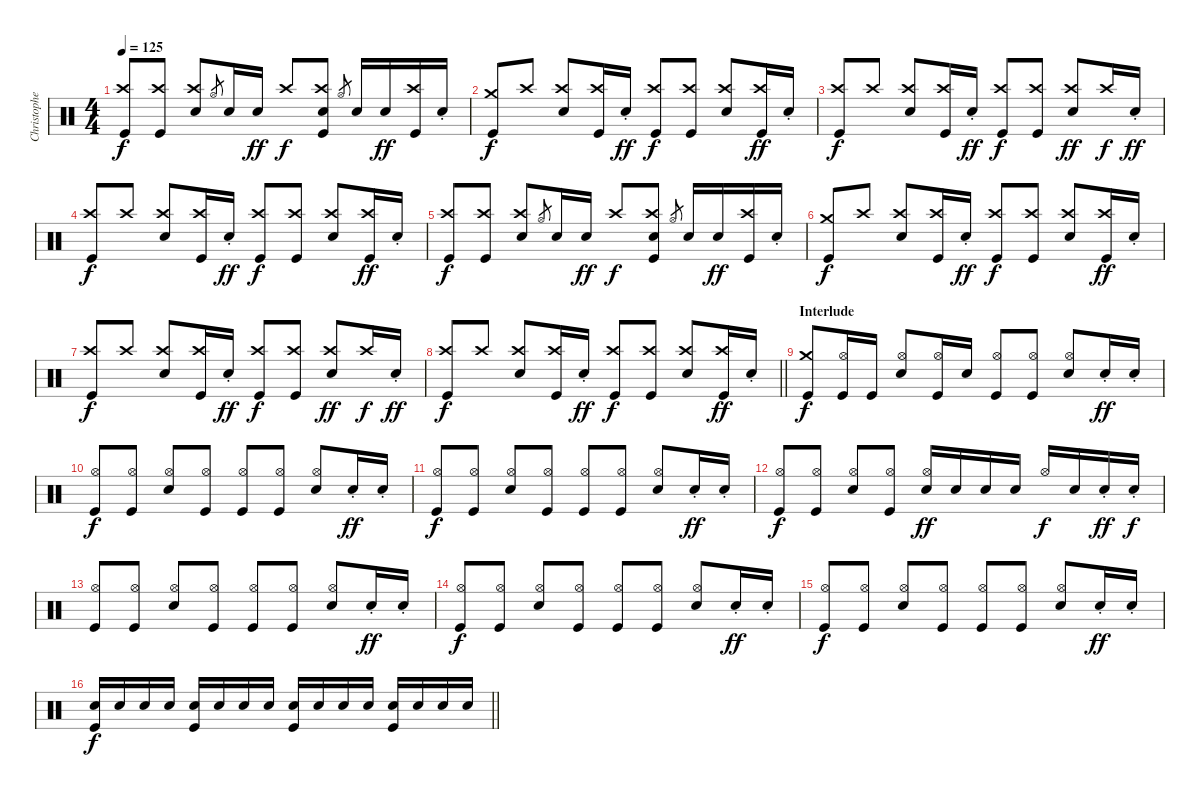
\track ("Christopher - Drums" "Christophe") {instrument percussion}
\staff {score}
\articulation defaults
\ts (4 4)
\tempo 125
\clef neutral
\ks c
("Crash high (hit)" "Kick (hit)").8{dy f beam Up} ("Crash high (hit)" "Kick (hit)").8{beam Up} ("Crash high (hit)" "Electric Snare (hit)").8{beam Up} "Hi-Hat (open)".8{gr} "Electric Snare (hit)".16{beam Up} "Electric Snare (hit)".16{dy ff beam Up} "Crash high (hit)".8{dy f beam Up} ("Crash high (hit)" "Electric Snare (hit)" "Kick (hit)").8{beam Up} "Hi-Hat (open)".8{gr} "Electric Snare (hit)".16{beam Up} "Electric Snare (hit)".16{dy ff beam Up} ("Crash high (hit)" "Kick (hit)").16{beam Up} "Electric Snare (hit)"{st}.16{beam Up} |
("Crash medium (hit)" "Kick (hit)").8{dy f beam Up} "Crash high (hit)".8{beam Up} ("Crash high (hit)" "Electric Snare (hit)").8{beam Up} ("Crash high (hit)" "Kick (hit)").16{beam Up} "Electric Snare (hit)"{st}.16{dy ff beam Up} ("Crash high (hit)" "Kick (hit)").8{dy f beam Up} ("Crash high (hit)" "Kick (hit)").8{beam Up} ("Crash high (hit)" "Electric Snare (hit)").8{beam Up} ("Crash high (hit)" "Kick (hit)").16{dy ff beam Up} "Electric Snare (hit)"{st}.16{beam Up} |
("Crash high (hit)" "Kick (hit)").8{dy f beam Up} "Crash high (hit)".8{beam Up} ("Crash high (hit)" "Electric Snare (hit)").8{beam Up} ("Crash high (hit)" "Kick (hit)").16{beam Up} "Electric Snare (hit)"{st}.16{dy ff beam Up} ("Crash high (hit)" "Kick (hit)").8{dy f beam Up} ("Crash high (hit)" "Kick (hit)").8{beam Up} ("Crash high (hit)" "Electric Snare (hit)").8{dy ff beam Up} "Crash high (hit)".16{dy f beam Up} "Electric Snare (hit)"{st}.16{dy ff beam Up} |
("Crash high (hit)" "Kick (hit)").8{dy f beam Up} "Crash high (hit)".8{beam Up} ("Crash high (hit)" "Electric Snare (hit)").8{beam Up} ("Crash high (hit)" "Kick (hit)").16{beam Up} "Electric Snare (hit)"{st}.16{dy ff beam Up} ("Crash high (hit)" "Kick (hit)").8{dy f beam Up} ("Crash high (hit)" "Kick (hit)").8{beam Up} ("Crash high (hit)" "Electric Snare (hit)").8{beam Up} ("Crash high (hit)" "Kick (hit)").16{dy ff beam Up} "Electric Snare (hit)"{st}.16{beam Up} |
("Crash high (hit)" "Kick (hit)").8{dy f beam Up} ("Crash high (hit)" "Kick (hit)").8{beam Up} ("Crash high (hit)" "Electric Snare (hit)").8{beam Up} "Hi-Hat (open)".8{gr} "Electric Snare (hit)".16{beam Up} "Electric Snare (hit)".16{dy ff beam Up} "Crash high (hit)".8{dy f beam Up} ("Crash high (hit)" "Electric Snare (hit)" "Kick (hit)").8{beam Up} "Hi-Hat (open)".8{gr} "Electric Snare (hit)".16{beam Up} "Electric Snare (hit)".16{dy ff beam Up} ("Crash high (hit)" "Kick (hit)").16{beam Up} "Electric Snare (hit)"{st}.16{beam Up} |
("Crash medium (hit)" "Kick (hit)").8{dy f beam Up} "Crash high (hit)".8{beam Up} ("Crash high (hit)" "Electric Snare (hit)").8{beam Up} ("Crash high (hit)" "Kick (hit)").16{beam Up} "Electric Snare (hit)"{st}.16{dy ff beam Up} ("Crash high (hit)" "Kick (hit)").8{dy f beam Up} ("Crash high (hit)" "Kick (hit)").8{beam Up} ("Crash high (hit)" "Electric Snare (hit)").8{beam Up} ("Crash high (hit)" "Kick (hit)").16{dy ff beam Up} "Electric Snare (hit)"{st}.16{beam Up} |
("Crash high (hit)" "Kick (hit)").8{dy f beam Up} "Crash high (hit)".8{beam Up} ("Crash high (hit)" "Electric Snare (hit)").8{beam Up} ("Crash high (hit)" "Kick (hit)").16{beam Up} "Electric Snare (hit)"{st}.16{dy ff beam Up} ("Crash high (hit)" "Kick (hit)").8{dy f beam Up} ("Crash high (hit)" "Kick (hit)").8{beam Up} ("Crash high (hit)" "Electric Snare (hit)").8{dy ff beam Up} "Crash high (hit)".16{dy f beam Up} "Electric Snare (hit)"{st}.16{dy ff beam Up} |
\barLineRight lightlight
("Crash high (hit)" "Kick (hit)").8{dy f beam Up} "Crash high (hit)".8{beam Up} ("Crash high (hit)" "Electric Snare (hit)").8{beam Up} ("Crash high (hit)" "Kick (hit)").16{beam Up} "Electric Snare (hit)"{st}.16{dy ff beam Up} ("Crash high (hit)" "Kick (hit)").8{dy f beam Up} ("Crash high (hit)" "Kick (hit)").8{beam Up} ("Crash high (hit)" "Electric Snare (hit)").8{beam Up} ("Crash high (hit)" "Kick (hit)").16{dy ff beam Up} "Electric Snare (hit)"{st}.16{beam Up} |
\section ("" "Interlude")
("Crash medium (hit)" "Kick (hit)").8{dy f beam Up} ("Hi-Hat (open)" "Kick (hit)").16{beam Up} "Kick (hit)".16{beam Up} ("Hi-Hat (open)" "Electric Snare (hit)").8{beam Up} ("Hi-Hat (open)" "Kick (hit)").16{beam Up} "Electric Snare (hit)".16{beam Up} ("Hi-Hat (open)" "Kick (hit)").8{beam Up} ("Hi-Hat (open)" "Kick (hit)").8{beam Up} ("Hi-Hat (open)" "Electric Snare (hit)").8{beam Up} "Electric Snare (hit)"{st}.16{dy ff beam Up} "Electric Snare (hit)"{st}.16{beam Up} |
("Hi-Hat (open)" "Kick (hit)").8{dy f beam Up} ("Hi-Hat (open)" "Kick (hit)").8{beam Up} ("Hi-Hat (open)" "Electric Snare (hit)").8{beam Up} ("Hi-Hat (open)" "Kick (hit)").8{beam Up} ("Hi-Hat (open)" "Kick (hit)").8{beam Up} ("Hi-Hat (open)" "Kick (hit)").8{beam Up} ("Hi-Hat (open)" "Electric Snare (hit)").8{beam Up} "Electric Snare (hit)"{st}.16{dy ff beam Up} "Electric Snare (hit)"{st}.16{beam Up} |
("Hi-Hat (open)" "Kick (hit)").8{dy f beam Up} ("Hi-Hat (open)" "Kick (hit)").8{beam Up} ("Hi-Hat (open)" "Electric Snare (hit)").8{beam Up} ("Hi-Hat (open)" "Kick (hit)").8{beam Up} ("Hi-Hat (open)" "Kick (hit)").8{beam Up} ("Hi-Hat (open)" "Kick (hit)").8{beam Up} ("Hi-Hat (open)" "Electric Snare (hit)").8{beam Up} "Electric Snare (hit)"{st}.16{dy ff beam Up} "Electric Snare (hit)"{st}.16{beam Up} |
("Hi-Hat (open)" "Kick (hit)").8{dy f beam Up} ("Hi-Hat (open)" "Kick (hit)").8{beam Up} ("Hi-Hat (open)" "Electric Snare (hit)").8{beam Up} ("Hi-Hat (open)" "Kick (hit)").8{beam Up} ("Hi-Hat (open)" "Electric Snare (hit)").16{dy ff beam Up} "Electric Snare (hit)".16{beam Up} "Electric Snare (hit)".16{beam Up} "Electric Snare (hit)".16{beam Up} "Hi-Hat (open)".16{dy f beam Up} "Electric Snare (hit)".16{beam Up} "Electric Snare (hit)"{st}.16{dy ff beam Up} "Electric Snare (hit)"{st}.16{dy f} |
("Hi-Hat (open)" "Kick (hit)").8{beam Up} ("Hi-Hat (open)" "Kick (hit)").8{beam Up} ("Hi-Hat (open)" "Electric Snare (hit)").8{beam Up} ("Hi-Hat (open)" "Kick (hit)").8{beam Up} ("Hi-Hat (open)" "Kick (hit)").8{beam Up} ("Hi-Hat (open)" "Kick (hit)").8{beam Up} ("Hi-Hat (open)" "Electric Snare (hit)").8{beam Up} "Electric Snare (hit)"{st}.16{dy ff beam Up} "Electric Snare (hit)"{st}.16{beam Up} |
("Hi-Hat (open)" "Kick (hit)").8{dy f beam Up} ("Hi-Hat (open)" "Kick (hit)").8{beam Up} ("Hi-Hat (open)" "Electric Snare (hit)").8{beam Up} ("Hi-Hat (open)" "Kick (hit)").8{beam Up} ("Hi-Hat (open)" "Kick (hit)").8{beam Up} ("Hi-Hat (open)" "Kick (hit)").8{beam Up} ("Hi-Hat (open)" "Electric Snare (hit)").8{beam Up} "Electric Snare (hit)"{st}.16{dy ff beam Up} "Electric Snare (hit)"{st}.16{beam Up} |
("Hi-Hat (open)" "Kick (hit)").8{dy f beam Up} ("Hi-Hat (open)" "Kick (hit)").8{beam Up} ("Hi-Hat (open)" "Electric Snare (hit)").8{beam Up} ("Hi-Hat (open)" "Kick (hit)").8{beam Up} ("Hi-Hat (open)" "Kick (hit)").8{beam Up} ("Hi-Hat (open)" "Kick (hit)").8{beam Up} ("Hi-Hat (open)" "Electric Snare (hit)").8{beam Up} "Electric Snare (hit)"{st}.16{dy ff beam Up} "Electric Snare (hit)"{st}.16{beam Up} |
\barLineRight lightlight
("Electric Snare (hit)" "Kick (hit)").16{dy f beam Up} "Electric Snare (hit)".16{beam Up} "Electric Snare (hit)".16{beam Up} "Electric Snare (hit)".16{beam Up} ("Electric Snare (hit)" "Kick (hit)").16{beam Up} "Electric Snare (hit)".16{beam Up} "Electric Snare (hit)".16{beam Up} "Electric Snare (hit)".16{beam Up} ("Electric Snare (hit)" "Kick (hit)").16{beam Up} "Electric Snare (hit)".16{beam Up} "Electric Snare (hit)".16{beam Up} "Electric Snare (hit)".16{beam Up} ("Electric Snare (hit)" "Kick (hit)").16{beam Up} "Electric Snare (hit)".16{beam Up} "Electric Snare (hit)".16{beam Up} "Electric Snare (hit)".16{beam Up}
